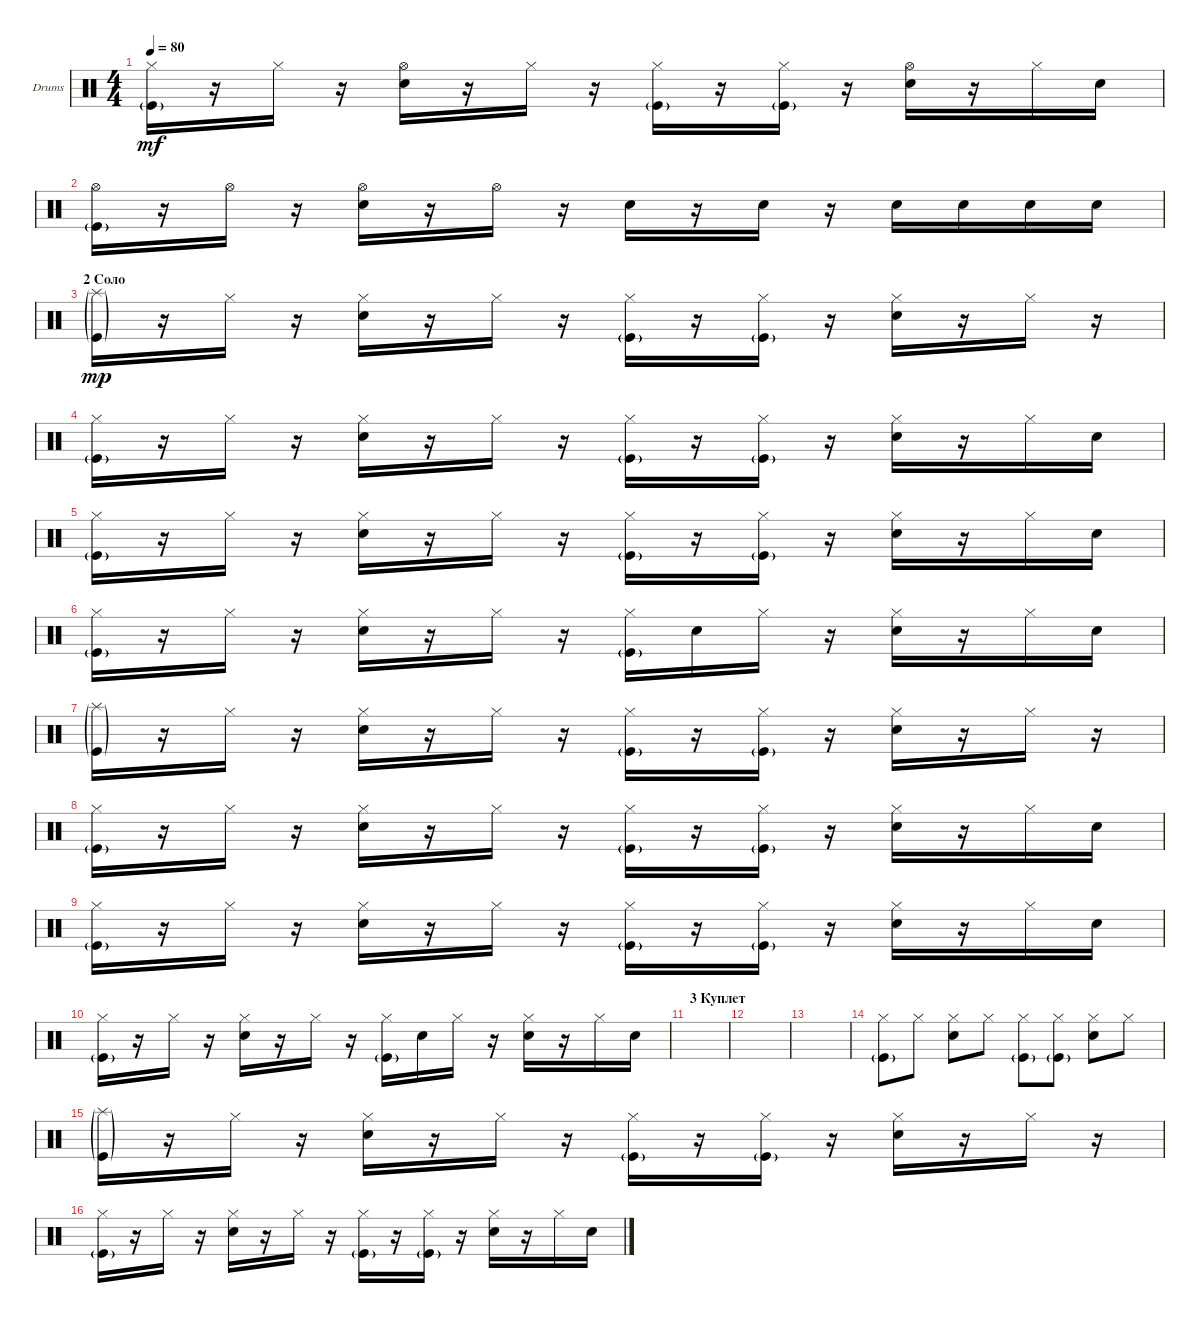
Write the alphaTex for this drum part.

\defaultSystemsLayout 4
\bracketExtendMode groupsimilarinstruments
\firstSystemTrackNameOrientation horizontal
\otherSystemsTrackNameOrientation horizontal
\track ("Drumkit" "Drums") {instrument percussion}
\staff {score}
\articulation defaults
\ts (4 4)
\tempo 80
\clef neutral
\ks c
("Kick (hit)"{g} "Hi-Hat (closed)").16{dy mf} r.16 "Hi-Hat (closed)".16 r.16 ("Hi-Hat (open)" "Snare (hit) 2").16 r.16 "Hi-Hat (closed)".16 r.16 ("Kick (hit)"{g} "Hi-Hat (closed)").16 r.16 ("Kick (hit)"{g} "Hi-Hat (closed)").16 r.16 ("Hi-Hat (open)" "Snare (hit) 2").16 r.16 "Hi-Hat (closed)".16 "Snare (hit) 2".16 |
("Kick (hit)"{g} "Hi-Hat (open)").16 r.16 "Hi-Hat (open)".16 r.16 ("Hi-Hat (open)" "Snare (hit) 2").16 r.16 "Hi-Hat (open)".16 r.16 "Snare (hit) 2".16 r.16 "Snare (hit) 2".16 r.16 "Snare (hit) 2".16 "Snare (hit) 2".16 "Snare (hit) 2".16 "Snare (hit) 2".16 |
\section ("" "2 Соло")
("Kick (hit)"{g} "Splash (hit)"{g}).16{dy mp} r.16 "Hi-Hat (closed)".16 r.16 ("Hi-Hat (closed)" "Snare (hit) 2").16 r.16 "Hi-Hat (closed)".16 r.16 ("Kick (hit)"{g} "Hi-Hat (closed)").16 r.16 ("Kick (hit)"{g} "Hi-Hat (closed)").16 r.16 ("Hi-Hat (closed)" "Snare (hit) 2").16 r.16 "Hi-Hat (closed)".16 r.16 |
("Kick (hit)"{g} "Hi-Hat (closed)").16 r.16 "Hi-Hat (closed)".16 r.16 ("Hi-Hat (closed)" "Snare (hit) 2").16 r.16 "Hi-Hat (closed)".16 r.16 ("Kick (hit)"{g} "Hi-Hat (closed)").16 r.16 ("Kick (hit)"{g} "Hi-Hat (closed)").16 r.16 ("Hi-Hat (closed)" "Snare (hit) 2").16 r.16 "Hi-Hat (closed)".16 "Snare (hit) 2".16 |
("Kick (hit)"{g} "Hi-Hat (closed)").16 r.16 "Hi-Hat (closed)".16 r.16 ("Hi-Hat (closed)" "Snare (hit) 2").16 r.16 "Hi-Hat (closed)".16 r.16 ("Kick (hit)"{g} "Hi-Hat (closed)").16 r.16 ("Kick (hit)"{g} "Hi-Hat (closed)").16 r.16 ("Hi-Hat (closed)" "Snare (hit) 2").16 r.16 "Hi-Hat (closed)".16 "Snare (hit) 2".16 |
("Kick (hit)"{g} "Hi-Hat (closed)").16 r.16 "Hi-Hat (closed)".16 r.16 ("Hi-Hat (closed)" "Snare (hit) 2").16 r.16 "Hi-Hat (closed)".16 r.16 ("Hi-Hat (closed)" "Kick (hit)"{g}).16 "Snare (hit) 2".16 "Hi-Hat (closed)".16 r.16 ("Hi-Hat (closed)" "Snare (hit) 2").16 r.16 "Hi-Hat (closed)".16 "Snare (hit) 2".16 |
("Kick (hit)"{g} "Splash (hit)"{g}).16 r.16 "Hi-Hat (closed)".16 r.16 ("Hi-Hat (closed)" "Snare (hit) 2").16 r.16 "Hi-Hat (closed)".16 r.16 ("Kick (hit)"{g} "Hi-Hat (closed)").16 r.16 ("Kick (hit)"{g} "Hi-Hat (closed)").16 r.16 ("Hi-Hat (closed)" "Snare (hit) 2").16 r.16 "Hi-Hat (closed)".16 r.16 |
("Kick (hit)"{g} "Hi-Hat (closed)").16 r.16 "Hi-Hat (closed)".16 r.16 ("Hi-Hat (closed)" "Snare (hit) 2").16 r.16 "Hi-Hat (closed)".16 r.16 ("Kick (hit)"{g} "Hi-Hat (closed)").16 r.16 ("Kick (hit)"{g} "Hi-Hat (closed)").16 r.16 ("Hi-Hat (closed)" "Snare (hit) 2").16 r.16 "Hi-Hat (closed)".16 "Snare (hit) 2".16 |
("Kick (hit)"{g} "Hi-Hat (closed)").16 r.16 "Hi-Hat (closed)".16 r.16 ("Hi-Hat (closed)" "Snare (hit) 2").16 r.16 "Hi-Hat (closed)".16 r.16 ("Kick (hit)"{g} "Hi-Hat (closed)").16 r.16 ("Kick (hit)"{g} "Hi-Hat (closed)").16 r.16 ("Hi-Hat (closed)" "Snare (hit) 2").16 r.16 "Hi-Hat (closed)".16 "Snare (hit) 2".16 |
("Kick (hit)"{g} "Hi-Hat (closed)").16 r.16 "Hi-Hat (closed)".16 r.16 ("Hi-Hat (closed)" "Snare (hit) 2").16 r.16 "Hi-Hat (closed)".16 r.16 ("Hi-Hat (closed)" "Kick (hit)"{g}).16 "Snare (hit) 2".16 "Hi-Hat (closed)".16 r.16 ("Hi-Hat (closed)" "Snare (hit) 2").16 r.16 "Hi-Hat (closed)".16 "Snare (hit) 2".16 |
\section ("" "3 Куплет")
|
|
|
("Hi-Hat (closed)" "Kick (hit)"{g}).8 "Hi-Hat (closed)".8 ("Hi-Hat (closed)" "Snare (hit) 2").8 "Hi-Hat (closed)".8 ("Hi-Hat (closed)" "Kick (hit)"{g}).8 ("Hi-Hat (closed)" "Kick (hit)"{g}).8 ("Hi-Hat (closed)" "Snare (hit) 2").8 "Hi-Hat (closed)".8 |
("Kick (hit)"{g} "Splash (hit)"{g}).16 r.16 "Hi-Hat (closed)".16 r.16 ("Hi-Hat (closed)" "Snare (hit) 2").16 r.16 "Hi-Hat (closed)".16 r.16 ("Kick (hit)"{g} "Hi-Hat (closed)").16 r.16 ("Kick (hit)"{g} "Hi-Hat (closed)").16 r.16 ("Hi-Hat (closed)" "Snare (hit) 2").16 r.16 "Hi-Hat (closed)".16 r.16 |
("Kick (hit)"{g} "Hi-Hat (closed)").16 r.16 "Hi-Hat (closed)".16 r.16 ("Hi-Hat (closed)" "Snare (hit) 2").16 r.16 "Hi-Hat (closed)".16 r.16 ("Kick (hit)"{g} "Hi-Hat (closed)").16 r.16 ("Kick (hit)"{g} "Hi-Hat (closed)").16 r.16 ("Hi-Hat (closed)" "Snare (hit) 2").16 r.16 "Hi-Hat (closed)".16 "Snare (hit) 2".16
